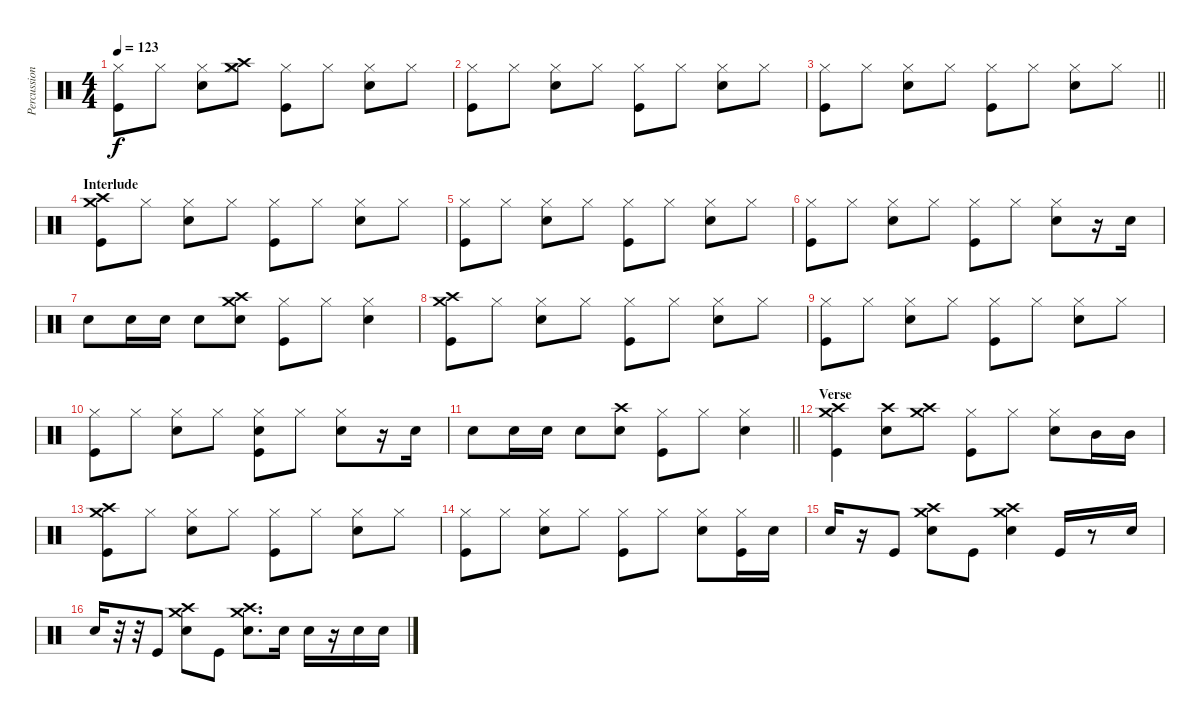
\track ("Percussion" "Percussion") {instrument percussion}
\staff {score}
\articulation defaults
\ts (4 4)
\tempo 123
\clef neutral
\ks c
("Hi-Hat (closed)" "Kick (hit)").8{dy f} "Hi-Hat (closed)".8 ("Hi-Hat (closed)" "Snare (hit) 2").8 ("Hi-Hat (closed)" "Crash high (hit)" "Crash medium (hit)").8 ("Hi-Hat (closed)" "Kick (hit)").8 "Hi-Hat (closed)".8 ("Hi-Hat (closed)" "Snare (hit) 2").8 "Hi-Hat (closed)".8 |
("Kick (hit)" "Hi-Hat (closed)").8 "Hi-Hat (closed)".8 ("Hi-Hat (closed)" "Snare (hit) 2").8 "Hi-Hat (closed)".8 ("Hi-Hat (closed)" "Kick (hit)").8 "Hi-Hat (closed)".8 ("Hi-Hat (closed)" "Snare (hit) 2").8 "Hi-Hat (closed)".8 |
\barLineRight lightlight
("Kick (hit)" "Hi-Hat (closed)").8 "Hi-Hat (closed)".8 ("Hi-Hat (closed)" "Snare (hit) 2").8 "Hi-Hat (closed)".8 ("Hi-Hat (closed)" "Kick (hit)").8 "Hi-Hat (closed)".8 ("Hi-Hat (closed)" "Snare (hit) 2").8 "Hi-Hat (closed)".8 |
\section ("" "Interlude")
("Crash high (hit)" "Kick (hit)" "Crash medium (hit)").8 "Hi-Hat (closed)".8 ("Hi-Hat (closed)" "Snare (hit) 2").8 "Hi-Hat (closed)".8 ("Hi-Hat (closed)" "Kick (hit)").8 "Hi-Hat (closed)".8 ("Hi-Hat (closed)" "Snare (hit) 2").8 "Hi-Hat (closed)".8 |
("Hi-Hat (closed)" "Kick (hit)").8 "Hi-Hat (closed)".8 ("Hi-Hat (closed)" "Snare (hit) 2").8 "Hi-Hat (closed)".8 ("Hi-Hat (closed)" "Kick (hit)").8 "Hi-Hat (closed)".8 ("Hi-Hat (closed)" "Snare (hit) 2").8 "Hi-Hat (closed)".8 |
("Hi-Hat (closed)" "Kick (hit)").8 "Hi-Hat (closed)".8 ("Hi-Hat (closed)" "Snare (hit) 2").8 "Hi-Hat (closed)".8 ("Hi-Hat (closed)" "Kick (hit)").8 "Hi-Hat (closed)".8 ("Hi-Hat (closed)" "Snare (hit) 2").8 r.16 "Snare (hit) 2".16 |
"Snare (hit) 2".8 "Snare (hit) 2".16 "Snare (hit) 2".16 "Snare (hit) 2".8 ("Snare (hit) 2" "Crash high (hit)" "Crash medium (hit)").8 ("Hi-Hat (closed)" "Kick (hit)").8 "Hi-Hat (closed)".8 ("Hi-Hat (closed)" "Snare (hit) 2").4 |
("Crash high (hit)" "Kick (hit)" "Crash medium (hit)").8 "Hi-Hat (closed)".8 ("Hi-Hat (closed)" "Snare (hit) 2").8 "Hi-Hat (closed)".8 ("Hi-Hat (closed)" "Kick (hit)").8 "Hi-Hat (closed)".8 ("Hi-Hat (closed)" "Snare (hit) 2").8 "Hi-Hat (closed)".8 |
("Hi-Hat (closed)" "Kick (hit)").8 "Hi-Hat (closed)".8 ("Hi-Hat (closed)" "Snare (hit) 2").8 "Hi-Hat (closed)".8 ("Hi-Hat (closed)" "Kick (hit)").8 "Hi-Hat (closed)".8 ("Hi-Hat (closed)" "Snare (hit) 2").8 "Hi-Hat (closed)".8 |
("Hi-Hat (closed)" "Kick (hit)").8 "Hi-Hat (closed)".8 ("Hi-Hat (closed)" "Snare (hit) 2").8 "Hi-Hat (closed)".8 ("Hi-Hat (closed)" "Kick (hit)" "Snare (hit) 2").8 "Hi-Hat (closed)".8 ("Hi-Hat (closed)" "Snare (hit) 2").8 r.16 "Snare (hit) 2".16 |
\barLineRight lightlight "Snare (hit) 2".8 "Snare (hit) 2".16 "Snare (hit) 2".16 "Snare (hit) 2".8
("Snare (hit) 2" "Crash high (hit)").8 ("Hi-Hat (closed)" "Kick (hit)").8 "Hi-Hat (closed)".8 ("Hi-Hat (closed)" "Snare (hit) 2").4 |
\section ("" "Verse")
("Crash high (hit)" "Crash medium (hit)" "Kick (hit)").4 ("Crash high (hit)" "Snare (hit) 2").8 ("Crash high (hit)" "Crash medium (hit)").8 ("Hi-Hat (closed)" "Kick (hit)").8 "Hi-Hat (closed)".8 ("Hi-Hat (closed)" "Snare (hit) 2").8 "Mid Tom (hit)".16 "Mid Tom (hit)".16 |
("Crash high (hit)" "Kick (hit)" "Crash medium (hit)").8 "Hi-Hat (closed)".8 ("Hi-Hat (closed)" "Snare (hit) 2").8 "Hi-Hat (closed)".8 ("Hi-Hat (closed)" "Kick (hit)").8 "Hi-Hat (closed)".8 ("Hi-Hat (closed)" "Snare (hit) 2").8 "Hi-Hat (closed)".8 |
("Hi-Hat (closed)" "Kick (hit)").8 "Hi-Hat (closed)".8 ("Hi-Hat (closed)" "Snare (hit) 2").8 "Hi-Hat (closed)".8 ("Hi-Hat (closed)" "Kick (hit)").8 "Hi-Hat (closed)".8 ("Hi-Hat (closed)" "Snare (hit) 2").8 ("Hi-Hat (closed)" "Kick (hit)").16 "Snare (hit) 2".16 |
"Snare (hit) 2".16 r.16 "Kick (hit)".8 ("Snare (hit) 2" "Crash medium (hit)" "Crash high (hit)").8 "Kick (hit)".8 ("Snare (hit) 2" "Crash medium (hit)" "Crash high (hit)").4 "Kick (hit)".16 r.8 "Snare (hit) 2".16 |
"Snare (hit) 2".16 r.32 r.32 "Kick (hit)".8 ("Snare (hit) 2" "Crash medium (hit)" "Crash high (hit)").8 "Kick (hit)".8 ("Snare (hit) 2" "Crash high (hit)" "Crash medium (hit)").8{d} "Snare (hit) 2".16 "Snare (hit) 2".16 r.16 "Snare (hit) 2".16 "Snare (hit) 2".16
